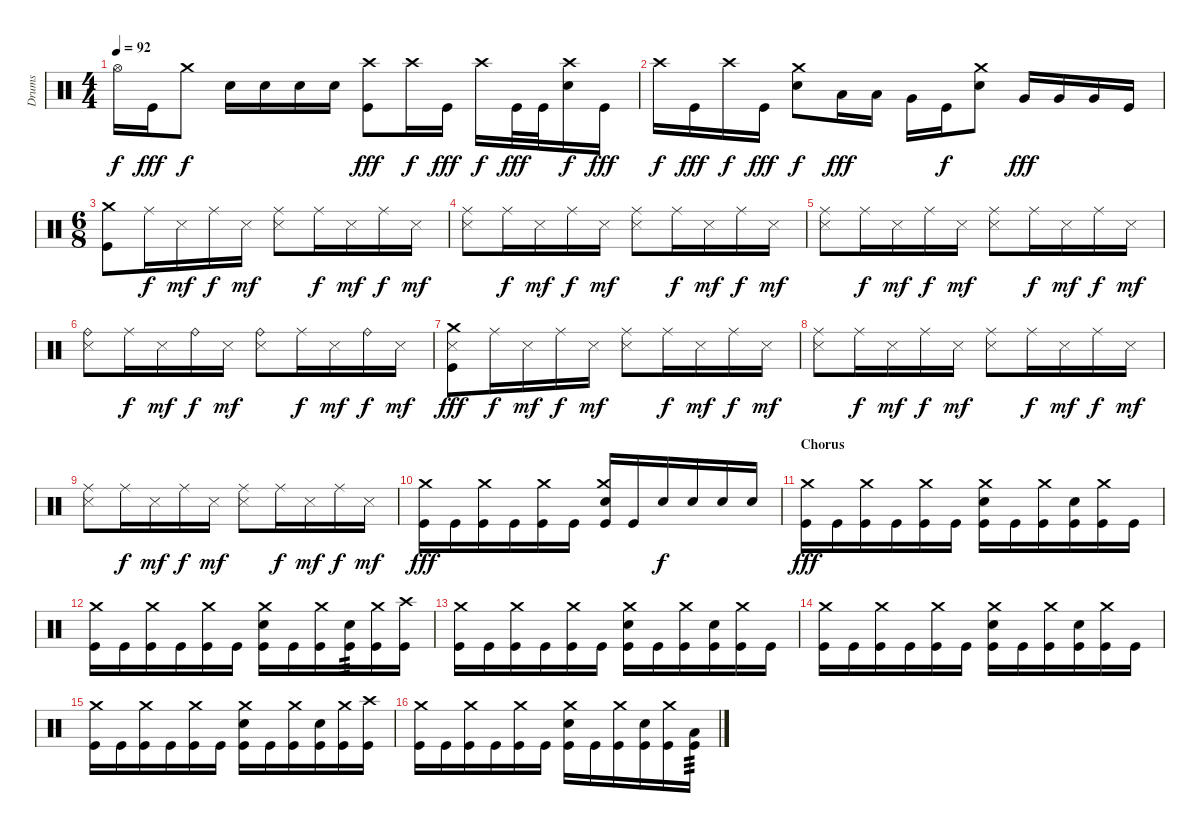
\track ("Drums" "Drums") {instrument percussion}
\staff {score}
\articulation defaults
\ts (4 4)
\tempo 92
\clef neutral
\ks c "Hi-Hat (open)".16{dy f} "Kick (hit)".16{dy fff} "Crash medium (hit)".8{dy f} "Snare (hit) 2".16 "Snare (hit) 2".16 "Snare (hit) 2".16 "Snare (hit) 2".16
("Crash high (hit)" "Kick (hit)").8{dy fff} "Crash high (hit)".16{dy f} "Kick (hit)".16{dy fff} "Crash high (hit)".16{dy f} "Kick (hit)".32{dy fff} "Kick (hit)".32 ("Crash high (hit)" "Snare (hit) 2").16{dy f} "Kick (hit)".16{dy fff} |
"Crash high (hit)".16{dy f} "Kick (hit)".16{dy fff} "Crash high (hit)".16{dy f} "Kick (hit)".16{dy fff} ("Crash medium (hit)" "Snare (hit) 2").8{dy f} "Low Tom (hit)".16{dy fff} "Low Tom (hit)".16 "Very Low Tom (hit)".16 "Kick (hit)".16{dy f} ("Crash medium (hit)" "Snare (hit) 2").8 "Very Low Tom (hit)".16{dy fff} "Very Low Tom (hit)".16 "Very Low Tom (hit)".16 "Kick (hit)".16 |
\ts (6 8)
("Crash medium (hit)" "Kick (hit)").8 "Ride (middle)".16{dy f} "Snare (side stick) 3".16{dy mf} "Ride (middle)".16{dy f} "Snare (side stick) 3".16{dy mf} ("Ride (middle)" "Snare (side stick) 3").8 "Ride (middle)".16{dy f} "Snare (side stick) 3".16{dy mf} "Ride (middle)".16{dy f} "Snare (side stick) 3".16{dy mf} |
("Ride (middle)" "Snare (side stick) 3").8 "Ride (middle)".16{dy f} "Snare (side stick) 3".16{dy mf} "Ride (middle)".16{dy f} "Snare (side stick) 3".16{dy mf} ("Ride (middle)" "Snare (side stick) 3").8 "Ride (middle)".16{dy f} "Snare (side stick) 3".16{dy mf} "Ride (middle)".16{dy f} "Snare (side stick) 3".16{dy mf} |
("Ride (middle)" "Snare (side stick) 3").8 "Ride (middle)".16{dy f} "Snare (side stick) 3".16{dy mf} "Ride (middle)".16{dy f} "Snare (side stick) 3".16{dy mf} ("Ride (middle)" "Snare (side stick) 3").8 "Ride (middle)".16{dy f} "Snare (side stick) 3".16{dy mf} "Ride (middle)".16{dy f} "Snare (side stick) 3".16{dy mf} |
("Ride (bell)" "Snare (side stick) 3").8 "Ride (middle)".16{dy f} "Snare (side stick) 3".16{dy mf} "Ride (bell)".16{dy f} "Snare (side stick) 3".16{dy mf} ("Ride (bell)" "Snare (side stick) 3").8 "Ride (middle)".16{dy f} "Snare (side stick) 3".16{dy mf} "Ride (bell)".16{dy f} "Snare (side stick) 3".16{dy mf} |
("Crash medium (hit)" "Snare (side stick) 3" "Kick (hit)").8{dy fff} "Ride (middle)".16{dy f} "Snare (side stick) 3".16{dy mf} "Ride (middle)".16{dy f} "Snare (side stick) 3".16{dy mf} ("Ride (middle)" "Snare (side stick) 3").8 "Ride (middle)".16{dy f} "Snare (side stick) 3".16{dy mf} "Ride (middle)".16{dy f} "Snare (side stick) 3".16{dy mf} |
("Ride (middle)" "Snare (side stick) 3").8 "Ride (middle)".16{dy f} "Snare (side stick) 3".16{dy mf} "Ride (middle)".16{dy f} "Snare (side stick) 3".16{dy mf} ("Ride (middle)" "Snare (side stick) 3").8 "Ride (middle)".16{dy f} "Snare (side stick) 3".16{dy mf} "Ride (middle)".16{dy f} "Snare (side stick) 3".16{dy mf} |
("Ride (middle)" "Snare (side stick) 3").8 "Ride (middle)".16{dy f} "Snare (side stick) 3".16{dy mf} "Ride (middle)".16{dy f} "Snare (side stick) 3".16{dy mf} ("Ride (middle)" "Snare (side stick) 3").8 "Ride (middle)".16{dy f} "Snare (side stick) 3".16{dy mf} "Ride (middle)".16{dy f} "Snare (side stick) 3".16{dy mf} |
("Crash medium (hit)" "Kick (hit)").16{dy fff} "Kick (hit)".16 ("Crash medium (hit)" "Kick (hit)").16 "Kick (hit)".16 ("Crash medium (hit)" "Kick (hit)").16 "Kick (hit)".16 ("Crash medium (hit)" "Snare (hit) 2" "Kick (hit)").16 "Kick (hit)".16 "Snare (hit) 2".16{dy f} "Snare (hit) 2".16 "Snare (hit) 2".16 "Snare (hit) 2".16 |
\section ("" "Chorus")
("Crash medium (hit)" "Kick (hit)").16{dy fff} "Kick (hit)".16 ("Crash medium (hit)" "Kick (hit)").16 "Kick (hit)".16 ("Crash medium (hit)" "Kick (hit)").16 "Kick (hit)".16 ("Crash medium (hit)" "Snare (hit) 2" "Kick (hit)").16 "Kick (hit)".16 ("Crash medium (hit)" "Kick (hit)").16 ("Snare (hit) 2" "Kick (hit)").16 ("Crash medium (hit)" "Kick (hit)").16 "Kick (hit)".16 |
("Crash medium (hit)" "Kick (hit)").16 "Kick (hit)".16 ("Crash medium (hit)" "Kick (hit)").16 "Kick (hit)".16 ("Crash medium (hit)" "Kick (hit)").16 "Kick (hit)".16 ("Crash medium (hit)" "Snare (hit) 2" "Kick (hit)").16 "Kick (hit)".16 ("Crash medium (hit)" "Kick (hit)").16 ("Snare (hit) 2" "Kick (hit)").16{tp 3} ("Crash medium (hit)" "Kick (hit)").16 ("Crash high (hit)" "Kick (hit)").16 |
("Crash medium (hit)" "Kick (hit)").16 "Kick (hit)".16 ("Crash medium (hit)" "Kick (hit)").16 "Kick (hit)".16 ("Crash medium (hit)" "Kick (hit)").16 "Kick (hit)".16 ("Crash medium (hit)" "Snare (hit) 2" "Kick (hit)").16 "Kick (hit)".16 ("Crash medium (hit)" "Kick (hit)").16 ("Snare (hit) 2" "Kick (hit)").16 ("Crash medium (hit)" "Kick (hit)").16 "Kick (hit)".16 |
("Crash medium (hit)" "Kick (hit)").16 "Kick (hit)".16 ("Crash medium (hit)" "Kick (hit)").16 "Kick (hit)".16 ("Crash medium (hit)" "Kick (hit)").16 "Kick (hit)".16 ("Crash medium (hit)" "Snare (hit) 2" "Kick (hit)").16 "Kick (hit)".16 ("Crash medium (hit)" "Kick (hit)").16 ("Snare (hit) 2" "Kick (hit)").16 ("Crash medium (hit)" "Kick (hit)").16 "Kick (hit)".16 |
("Crash medium (hit)" "Kick (hit)").16 "Kick (hit)".16 ("Crash medium (hit)" "Kick (hit)").16 "Kick (hit)".16 ("Crash medium (hit)" "Kick (hit)").16 "Kick (hit)".16 ("Crash medium (hit)" "Snare (hit) 2" "Kick (hit)").16 "Kick (hit)".16 ("Crash medium (hit)" "Kick (hit)").16 ("Snare (hit) 2" "Kick (hit)").16 ("Crash medium (hit)" "Kick (hit)").16 ("Crash high (hit)" "Kick (hit)").16 |
("Crash medium (hit)" "Kick (hit)").16 "Kick (hit)".16 ("Crash medium (hit)" "Kick (hit)").16 "Kick (hit)".16 ("Crash medium (hit)" "Kick (hit)").16 "Kick (hit)".16 ("Crash medium (hit)" "Snare (hit) 2" "Kick (hit)").16 "Kick (hit)".16 ("Crash medium (hit)" "Kick (hit)").16 ("Snare (hit) 2" "Kick (hit)").16 ("Crash medium (hit)" "Kick (hit)").16 ("Low Tom (hit)" "Kick (hit)").16{tp 3}
